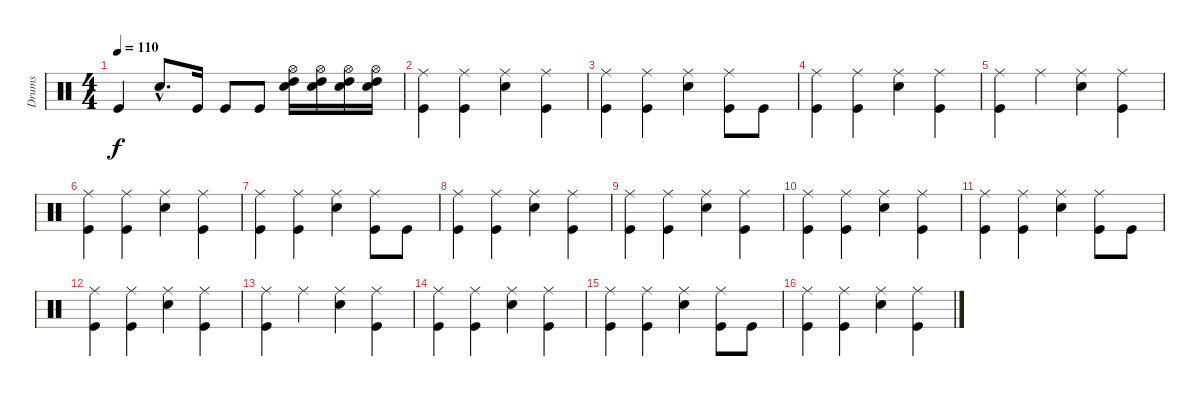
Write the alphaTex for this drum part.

\track ("Drums" "Drums") {instrument percussion}
\staff {score}
\articulation defaults
\ts (4 4)
\tempo 110
\clef neutral
\ks c "Kick (hit)".4{dy f} "Electric Snare (hit)"{hac}.8{d} "Kick (hit)".16 "Kick (hit)".8 "Kick (hit)".8
("Hi-Hat (open)" "High Tom (hit)" "Snare (hit) 2").16 ("Hi-Hat (open)" "High Tom (hit)" "Snare (hit) 2").16 ("Hi-Hat (open)" "High Tom (hit)" "Snare (hit) 2").16 ("Hi-Hat (open)" "High Tom (hit)" "Snare (hit) 2").16 |
("Ride (middle)" "Kick (hit)").4 ("Ride (middle)" "Kick (hit)").4 ("Ride (middle)" "Snare (hit) 2").4 ("Ride (middle)" "Kick (hit)").4 |
("Ride (middle)" "Kick (hit)").4 ("Ride (middle)" "Kick (hit)").4 ("Ride (middle)" "Snare (hit) 2").4 ("Ride (middle)" "Kick (hit)").8 "Kick (hit)".8 |
("Ride (middle)" "Kick (hit)").4 ("Ride (middle)" "Kick (hit)").4 ("Ride (middle)" "Snare (hit) 2").4 ("Ride (middle)" "Kick (hit)").4 |
("Ride (middle)" "Kick (hit)").4 "Ride (middle)".4 ("Ride (middle)" "Snare (hit) 2").4 ("Ride (middle)" "Kick (hit)").4 |
("Ride (middle)" "Kick (hit)").4 ("Ride (middle)" "Kick (hit)").4 ("Ride (middle)" "Snare (hit) 2").4 ("Ride (middle)" "Kick (hit)").4 |
("Ride (middle)" "Kick (hit)").4 ("Ride (middle)" "Kick (hit)").4 ("Ride (middle)" "Snare (hit) 2").4 ("Ride (middle)" "Kick (hit)").8 "Kick (hit)".8 |
("Ride (middle)" "Kick (hit)").4 ("Ride (middle)" "Kick (hit)").4 ("Ride (middle)" "Snare (hit) 2").4 ("Ride (middle)" "Kick (hit)").4 |
("Ride (middle)" "Kick (hit)").4 ("Ride (middle)" "Kick (hit)").4 ("Ride (middle)" "Snare (hit) 2").4 ("Ride (middle)" "Kick (hit)").4 |
("Ride (middle)" "Kick (hit)").4 ("Ride (middle)" "Kick (hit)").4 ("Ride (middle)" "Snare (hit) 2").4 ("Ride (middle)" "Kick (hit)").4 |
("Ride (middle)" "Kick (hit)").4 ("Ride (middle)" "Kick (hit)").4 ("Ride (middle)" "Snare (hit) 2").4 ("Ride (middle)" "Kick (hit)").8 "Kick (hit)".8 |
("Ride (middle)" "Kick (hit)").4 ("Ride (middle)" "Kick (hit)").4 ("Ride (middle)" "Snare (hit) 2").4 ("Ride (middle)" "Kick (hit)").4 |
("Ride (middle)" "Kick (hit)").4 "Ride (middle)".4 ("Ride (middle)" "Snare (hit) 2").4 ("Ride (middle)" "Kick (hit)").4 |
("Ride (middle)" "Kick (hit)").4 ("Ride (middle)" "Kick (hit)").4 ("Ride (middle)" "Snare (hit) 2").4 ("Ride (middle)" "Kick (hit)").4 |
("Ride (middle)" "Kick (hit)").4 ("Ride (middle)" "Kick (hit)").4 ("Ride (middle)" "Snare (hit) 2").4 ("Ride (middle)" "Kick (hit)").8 "Kick (hit)".8 |
("Ride (middle)" "Kick (hit)").4 ("Ride (middle)" "Kick (hit)").4 ("Ride (middle)" "Snare (hit) 2").4 ("Ride (middle)" "Kick (hit)").4
